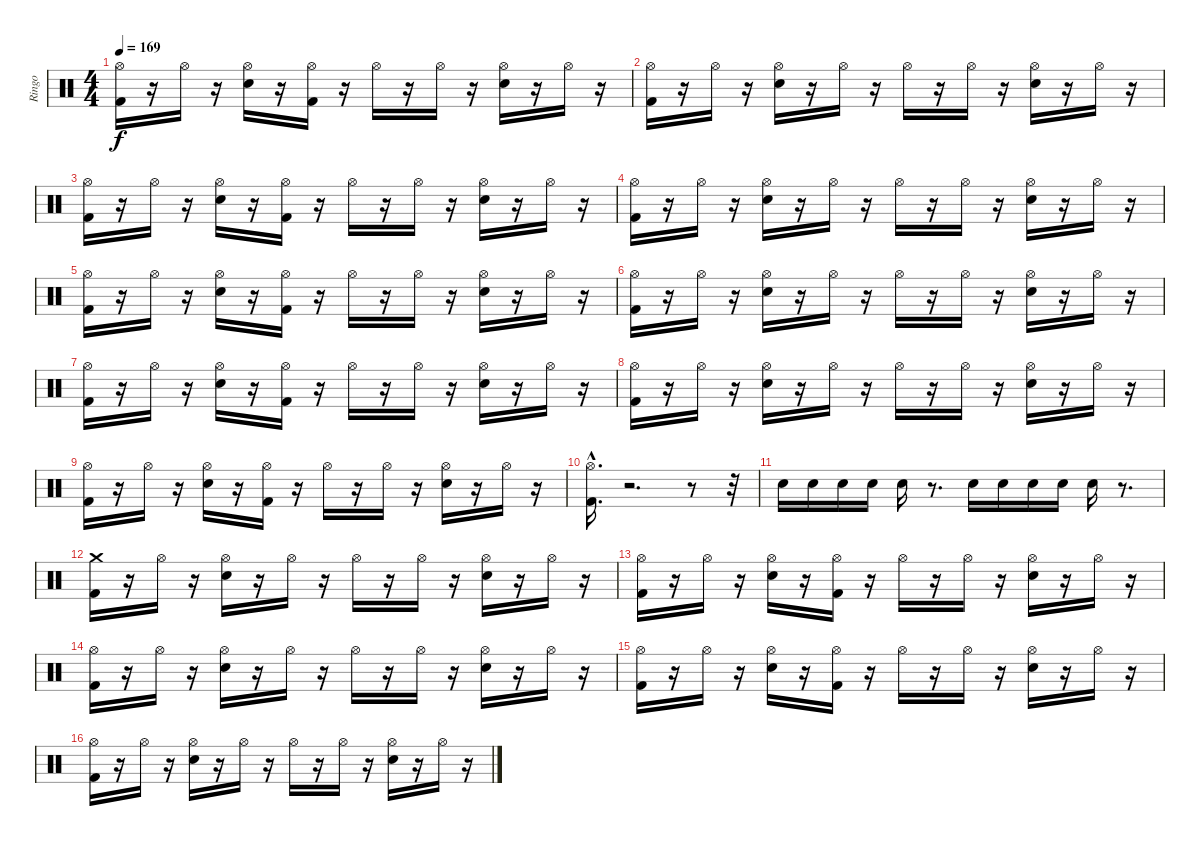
\track ("Ringo" "Ringo") {instrument percussion}
\staff {score}
\articulation defaults
\ts (4 4)
\tempo 169
\clef neutral
\ks c
("Hi-Hat (open)" "Kick (hit) 2").16{dy f} r.16 "Hi-Hat (open)".16 r.16 ("Hi-Hat (open)" "Snare (hit) 2").16 r.16 ("Hi-Hat (open)" "Kick (hit) 2").16 r.16 "Hi-Hat (open)".16 r.16 "Hi-Hat (open)".16 r.16 ("Hi-Hat (open)" "Snare (hit) 2").16 r.16 "Hi-Hat (open)".16 r.16 |
("Hi-Hat (open)" "Kick (hit) 2").16 r.16 "Hi-Hat (open)".16 r.16 ("Hi-Hat (open)" "Snare (hit) 2").16 r.16 "Hi-Hat (open)".16 r.16 "Hi-Hat (open)".16 r.16 "Hi-Hat (open)".16 r.16 ("Hi-Hat (open)" "Snare (hit) 2").16 r.16 "Hi-Hat (open)".16 r.16 |
("Hi-Hat (open)" "Kick (hit) 2").16 r.16 "Hi-Hat (open)".16 r.16 ("Hi-Hat (open)" "Snare (hit) 2").16 r.16 ("Hi-Hat (open)" "Kick (hit) 2").16 r.16 "Hi-Hat (open)".16 r.16 "Hi-Hat (open)".16 r.16 ("Hi-Hat (open)" "Snare (hit) 2").16 r.16 "Hi-Hat (open)".16 r.16 |
("Hi-Hat (open)" "Kick (hit) 2").16 r.16 "Hi-Hat (open)".16 r.16 ("Hi-Hat (open)" "Snare (hit) 2").16 r.16 "Hi-Hat (open)".16 r.16 "Hi-Hat (open)".16 r.16 "Hi-Hat (open)".16 r.16 ("Hi-Hat (open)" "Snare (hit) 2").16 r.16 "Hi-Hat (open)".16 r.16 |
("Hi-Hat (open)" "Kick (hit) 2").16 r.16 "Hi-Hat (open)".16 r.16 ("Hi-Hat (open)" "Snare (hit) 2").16 r.16 ("Hi-Hat (open)" "Kick (hit) 2").16 r.16 "Hi-Hat (open)".16 r.16 "Hi-Hat (open)".16 r.16 ("Hi-Hat (open)" "Snare (hit) 2").16 r.16 "Hi-Hat (open)".16 r.16 |
("Hi-Hat (open)" "Kick (hit) 2").16 r.16 "Hi-Hat (open)".16 r.16 ("Hi-Hat (open)" "Snare (hit) 2").16 r.16 "Hi-Hat (open)".16 r.16 "Hi-Hat (open)".16 r.16 "Hi-Hat (open)".16 r.16 ("Hi-Hat (open)" "Snare (hit) 2").16 r.16 "Hi-Hat (open)".16 r.16 |
("Hi-Hat (open)" "Kick (hit) 2").16 r.16 "Hi-Hat (open)".16 r.16 ("Hi-Hat (open)" "Snare (hit) 2").16 r.16 ("Hi-Hat (open)" "Kick (hit) 2").16 r.16 "Hi-Hat (open)".16 r.16 "Hi-Hat (open)".16 r.16 ("Hi-Hat (open)" "Snare (hit) 2").16 r.16 "Hi-Hat (open)".16 r.16 |
("Hi-Hat (open)" "Kick (hit) 2").16 r.16 "Hi-Hat (open)".16 r.16 ("Hi-Hat (open)" "Snare (hit) 2").16 r.16 "Hi-Hat (open)".16 r.16 "Hi-Hat (open)".16 r.16 "Hi-Hat (open)".16 r.16 ("Hi-Hat (open)" "Snare (hit) 2").16 r.16 "Hi-Hat (open)".16 r.16 |
("Hi-Hat (open)" "Kick (hit) 2").16 r.16 "Hi-Hat (open)".16 r.16 ("Hi-Hat (open)" "Snare (hit) 2").16 r.16 ("Hi-Hat (open)" "Kick (hit) 2").16 r.16 "Hi-Hat (open)".16 r.16 "Hi-Hat (open)".16 r.16 ("Hi-Hat (open)" "Snare (hit) 2").16 r.16 "Hi-Hat (open)".16 r.16 |
("Kick (hit) 2"{hac} "Hi-Hat (open)"{hac}).16{d} r.2{d} r.8 r.32 |
"Snare (hit) 2".16 "Snare (hit) 2".16 "Snare (hit) 2".16 "Snare (hit) 2".16 "Snare (hit) 2".16 r.8{d} "Snare (hit) 2".16 "Snare (hit) 2".16 "Snare (hit) 2".16 "Snare (hit) 2".16 "Snare (hit) 2".16 r.8{d} |
("Crash medium (hit)" "Kick (hit) 2").16 r.16 "Hi-Hat (open)".16 r.16 ("Hi-Hat (open)" "Snare (hit) 2").16 r.16 "Hi-Hat (open)".16 r.16 "Hi-Hat (open)".16 r.16 "Hi-Hat (open)".16 r.16 ("Hi-Hat (open)" "Snare (hit) 2").16 r.16 "Hi-Hat (open)".16 r.16 |
("Hi-Hat (open)" "Kick (hit) 2").16 r.16 "Hi-Hat (open)".16 r.16 ("Hi-Hat (open)" "Snare (hit) 2").16 r.16 ("Hi-Hat (open)" "Kick (hit) 2").16 r.16 "Hi-Hat (open)".16 r.16 "Hi-Hat (open)".16 r.16 ("Hi-Hat (open)" "Snare (hit) 2").16 r.16 "Hi-Hat (open)".16 r.16 |
("Hi-Hat (open)" "Kick (hit) 2").16 r.16 "Hi-Hat (open)".16 r.16 ("Hi-Hat (open)" "Snare (hit) 2").16 r.16 "Hi-Hat (open)".16 r.16 "Hi-Hat (open)".16 r.16 "Hi-Hat (open)".16 r.16 ("Hi-Hat (open)" "Snare (hit) 2").16 r.16 "Hi-Hat (open)".16 r.16 |
("Hi-Hat (open)" "Kick (hit) 2").16 r.16 "Hi-Hat (open)".16 r.16 ("Hi-Hat (open)" "Snare (hit) 2").16 r.16 ("Hi-Hat (open)" "Kick (hit) 2").16 r.16 "Hi-Hat (open)".16 r.16 "Hi-Hat (open)".16 r.16 ("Hi-Hat (open)" "Snare (hit) 2").16 r.16 "Hi-Hat (open)".16 r.16 |
("Hi-Hat (open)" "Kick (hit) 2").16 r.16 "Hi-Hat (open)".16 r.16 ("Hi-Hat (open)" "Snare (hit) 2").16 r.16 "Hi-Hat (open)".16 r.16 "Hi-Hat (open)".16 r.16 "Hi-Hat (open)".16 r.16 ("Hi-Hat (open)" "Snare (hit) 2").16 r.16 "Hi-Hat (open)".16 r.16
